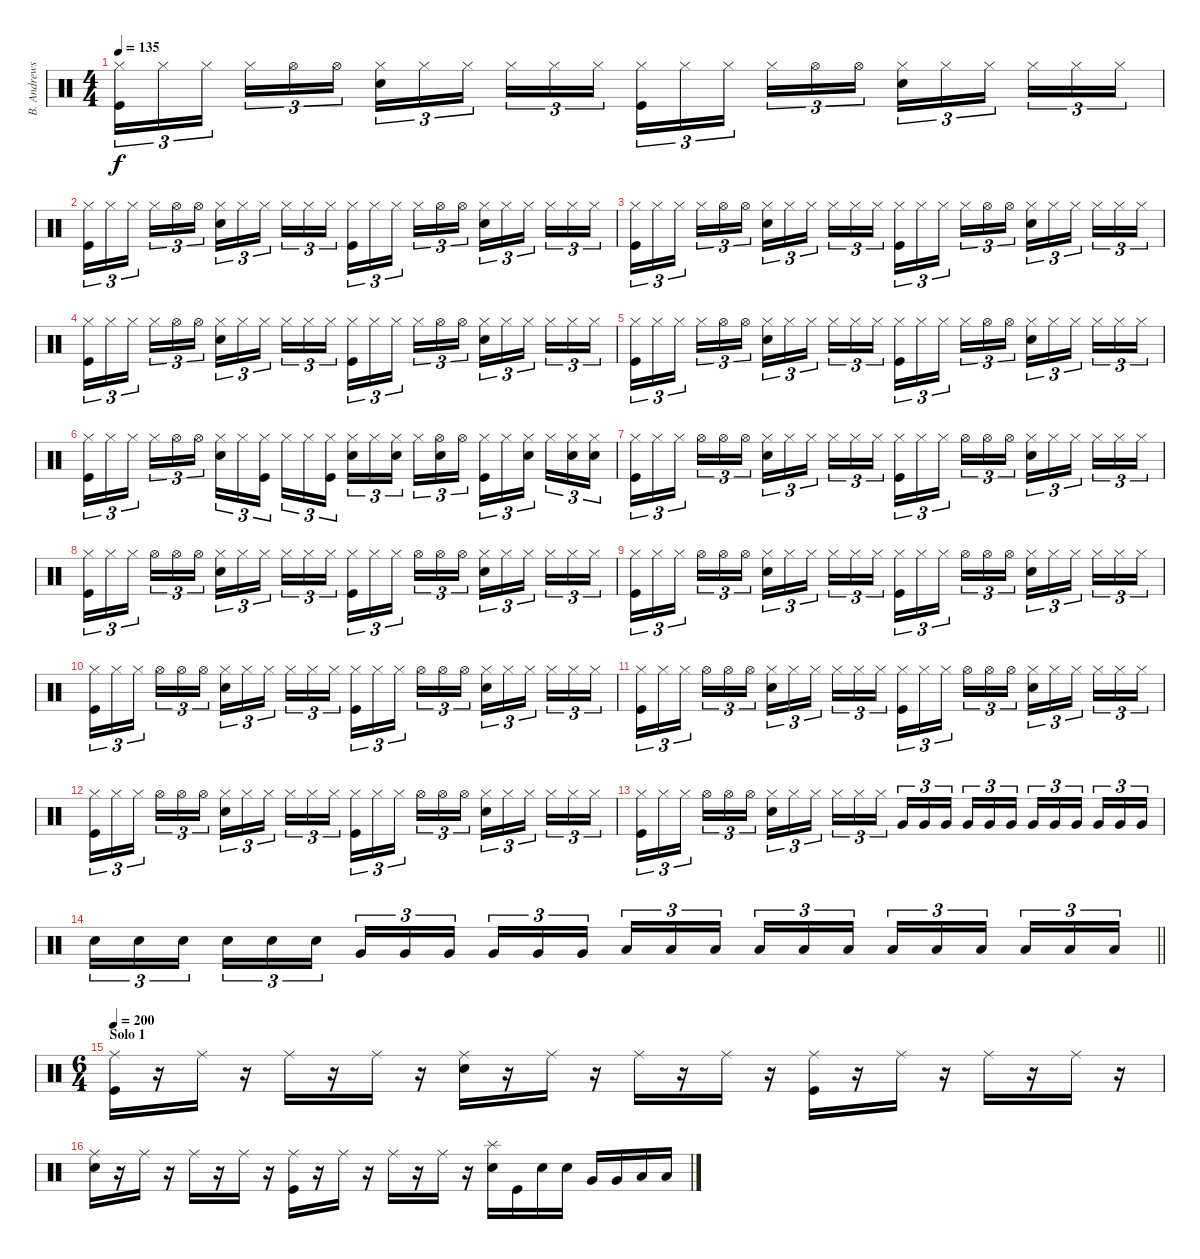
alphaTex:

\track ("B. Andrews" "B. Andrews") {instrument percussion}
\staff {score}
\articulation defaults
\ts (4 4)
\tempo 135
\clef neutral
\ks c
("Hi-Hat (closed)" "Kick (hit)").16{tu (3 2) dy f} "Hi-Hat (closed)".16{tu (3 2)} "Hi-Hat (closed)".16{tu (3 2) beam splitsecondary} "Hi-Hat (closed)".16{tu (3 2)} "Hi-Hat (open)".16{tu (3 2)} "Hi-Hat (open)".16{tu (3 2)} ("Hi-Hat (closed)" "Electric Snare (hit)").16{tu (3 2)} "Hi-Hat (closed)".16{tu (3 2)} "Hi-Hat (closed)".16{tu (3 2) beam splitsecondary} "Hi-Hat (closed)".16{tu (3 2)} "Hi-Hat (closed)".16{tu (3 2)} "Hi-Hat (closed)".16{tu (3 2)} ("Hi-Hat (closed)" "Kick (hit)").16{tu (3 2)} "Hi-Hat (closed)".16{tu (3 2)} "Hi-Hat (closed)".16{tu (3 2) beam splitsecondary} "Hi-Hat (closed)".16{tu (3 2)} "Hi-Hat (open)".16{tu (3 2)} "Hi-Hat (open)".16{tu (3 2)} ("Hi-Hat (closed)" "Electric Snare (hit)").16{tu (3 2)} "Hi-Hat (closed)".16{tu (3 2)} "Hi-Hat (closed)".16{tu (3 2) beam splitsecondary} "Hi-Hat (closed)".16{tu (3 2)} "Hi-Hat (closed)".16{tu (3 2)} "Hi-Hat (closed)".16{tu (3 2)} |
("Hi-Hat (closed)" "Kick (hit)").16{tu (3 2)} "Hi-Hat (closed)".16{tu (3 2)} "Hi-Hat (closed)".16{tu (3 2) beam splitsecondary} "Hi-Hat (closed)".16{tu (3 2)} "Hi-Hat (open)".16{tu (3 2)} "Hi-Hat (open)".16{tu (3 2)} ("Hi-Hat (closed)" "Electric Snare (hit)").16{tu (3 2)} "Hi-Hat (closed)".16{tu (3 2)} "Hi-Hat (closed)".16{tu (3 2) beam splitsecondary} "Hi-Hat (closed)".16{tu (3 2)} "Hi-Hat (closed)".16{tu (3 2)} "Hi-Hat (closed)".16{tu (3 2)} ("Hi-Hat (closed)" "Kick (hit)").16{tu (3 2)} "Hi-Hat (closed)".16{tu (3 2)} "Hi-Hat (closed)".16{tu (3 2) beam splitsecondary} "Hi-Hat (closed)".16{tu (3 2)} "Hi-Hat (open)".16{tu (3 2)} "Hi-Hat (open)".16{tu (3 2)} ("Hi-Hat (closed)" "Electric Snare (hit)").16{tu (3 2)} "Hi-Hat (closed)".16{tu (3 2)} "Hi-Hat (closed)".16{tu (3 2) beam splitsecondary} "Hi-Hat (closed)".16{tu (3 2)} "Hi-Hat (closed)".16{tu (3 2)} "Hi-Hat (closed)".16{tu (3 2)} |
("Hi-Hat (closed)" "Kick (hit)").16{tu (3 2)} "Hi-Hat (closed)".16{tu (3 2)} "Hi-Hat (closed)".16{tu (3 2) beam splitsecondary} "Hi-Hat (closed)".16{tu (3 2)} "Hi-Hat (open)".16{tu (3 2)} "Hi-Hat (open)".16{tu (3 2)} ("Hi-Hat (closed)" "Electric Snare (hit)").16{tu (3 2)} "Hi-Hat (closed)".16{tu (3 2)} "Hi-Hat (closed)".16{tu (3 2) beam splitsecondary} "Hi-Hat (closed)".16{tu (3 2)} "Hi-Hat (closed)".16{tu (3 2)} "Hi-Hat (closed)".16{tu (3 2)} ("Hi-Hat (closed)" "Kick (hit)").16{tu (3 2)} "Hi-Hat (closed)".16{tu (3 2)} "Hi-Hat (closed)".16{tu (3 2) beam splitsecondary} "Hi-Hat (closed)".16{tu (3 2)} "Hi-Hat (open)".16{tu (3 2)} "Hi-Hat (open)".16{tu (3 2)} ("Hi-Hat (closed)" "Electric Snare (hit)").16{tu (3 2)} "Hi-Hat (closed)".16{tu (3 2)} "Hi-Hat (closed)".16{tu (3 2) beam splitsecondary} "Hi-Hat (closed)".16{tu (3 2)} "Hi-Hat (closed)".16{tu (3 2)} "Hi-Hat (closed)".16{tu (3 2)} |
("Hi-Hat (closed)" "Kick (hit)").16{tu (3 2)} "Hi-Hat (closed)".16{tu (3 2)} "Hi-Hat (closed)".16{tu (3 2) beam splitsecondary} "Hi-Hat (closed)".16{tu (3 2)} "Hi-Hat (open)".16{tu (3 2)} "Hi-Hat (open)".16{tu (3 2)} ("Hi-Hat (closed)" "Electric Snare (hit)").16{tu (3 2)} "Hi-Hat (closed)".16{tu (3 2)} "Hi-Hat (closed)".16{tu (3 2) beam splitsecondary} "Hi-Hat (closed)".16{tu (3 2)} "Hi-Hat (closed)".16{tu (3 2)} "Hi-Hat (closed)".16{tu (3 2)} ("Hi-Hat (closed)" "Kick (hit)").16{tu (3 2)} "Hi-Hat (closed)".16{tu (3 2)} "Hi-Hat (closed)".16{tu (3 2) beam splitsecondary} "Hi-Hat (closed)".16{tu (3 2)} "Hi-Hat (open)".16{tu (3 2)} "Hi-Hat (open)".16{tu (3 2)} ("Hi-Hat (closed)" "Electric Snare (hit)").16{tu (3 2)} "Hi-Hat (closed)".16{tu (3 2)} "Hi-Hat (closed)".16{tu (3 2) beam splitsecondary} "Hi-Hat (closed)".16{tu (3 2)} "Hi-Hat (closed)".16{tu (3 2)} "Hi-Hat (closed)".16{tu (3 2)} |
("Hi-Hat (closed)" "Kick (hit)").16{tu (3 2)} "Hi-Hat (closed)".16{tu (3 2)} "Hi-Hat (closed)".16{tu (3 2) beam splitsecondary} "Hi-Hat (closed)".16{tu (3 2)} "Hi-Hat (open)".16{tu (3 2)} "Hi-Hat (open)".16{tu (3 2)} ("Hi-Hat (closed)" "Electric Snare (hit)").16{tu (3 2)} "Hi-Hat (closed)".16{tu (3 2)} "Hi-Hat (closed)".16{tu (3 2) beam splitsecondary} "Hi-Hat (closed)".16{tu (3 2)} "Hi-Hat (closed)".16{tu (3 2)} "Hi-Hat (closed)".16{tu (3 2)} ("Hi-Hat (closed)" "Kick (hit)").16{tu (3 2)} "Hi-Hat (closed)".16{tu (3 2)} "Hi-Hat (closed)".16{tu (3 2) beam splitsecondary} "Hi-Hat (closed)".16{tu (3 2)} "Hi-Hat (open)".16{tu (3 2)} "Hi-Hat (open)".16{tu (3 2)} ("Hi-Hat (closed)" "Electric Snare (hit)").16{tu (3 2)} "Hi-Hat (closed)".16{tu (3 2)} "Hi-Hat (closed)".16{tu (3 2) beam splitsecondary} "Hi-Hat (closed)".16{tu (3 2)} "Hi-Hat (closed)".16{tu (3 2)} "Hi-Hat (closed)".16{tu (3 2)} |
("Hi-Hat (closed)" "Kick (hit)").16{tu (3 2)} "Hi-Hat (closed)".16{tu (3 2)} "Hi-Hat (closed)".16{tu (3 2) beam splitsecondary} "Hi-Hat (closed)".16{tu (3 2)} "Hi-Hat (open)".16{tu (3 2)} "Hi-Hat (open)".16{tu (3 2)} ("Hi-Hat (closed)" "Electric Snare (hit)").16{tu (3 2)} "Hi-Hat (closed)".16{tu (3 2)} ("Hi-Hat (closed)" "Kick (hit)").16{tu (3 2) beam splitsecondary} "Hi-Hat (closed)".16{tu (3 2)} "Hi-Hat (closed)".16{tu (3 2)} ("Hi-Hat (closed)" "Kick (hit)").16{tu (3 2)} ("Hi-Hat (closed)" "Electric Snare (hit)").16{tu (3 2)} "Hi-Hat (closed)".16{tu (3 2)} ("Hi-Hat (closed)" "Electric Snare (hit)").16{tu (3 2) beam splitsecondary} "Hi-Hat (closed)".16{tu (3 2)} ("Hi-Hat (open)" "Electric Snare (hit)").16{tu (3 2)} "Hi-Hat (open)".16{tu (3 2)} ("Hi-Hat (closed)" "Kick (hit)").16{tu (3 2)} "Hi-Hat (closed)".16{tu (3 2)} ("Hi-Hat (closed)" "Electric Snare (hit)").16{tu (3 2) beam splitsecondary} "Hi-Hat (closed)".16{tu (3 2)} ("Hi-Hat (closed)" "Electric Snare (hit)").16{tu (3 2)} ("Hi-Hat (closed)" "Electric Snare (hit)").16{tu (3 2)} |
("Hi-Hat (closed)" "Kick (hit)").16{tu (3 2)} "Hi-Hat (closed)".16{tu (3 2)} "Hi-Hat (closed)".16{tu (3 2) beam splitsecondary} "Hi-Hat (open)".16{tu (3 2)} "Hi-Hat (open)".16{tu (3 2)} "Hi-Hat (open)".16{tu (3 2)} ("Hi-Hat (closed)" "Electric Snare (hit)").16{tu (3 2)} "Hi-Hat (closed)".16{tu (3 2)} "Hi-Hat (closed)".16{tu (3 2) beam splitsecondary} "Hi-Hat (closed)".16{tu (3 2)} "Hi-Hat (closed)".16{tu (3 2)} "Hi-Hat (closed)".16{tu (3 2)} ("Hi-Hat (closed)" "Kick (hit)").16{tu (3 2)} "Hi-Hat (closed)".16{tu (3 2)} "Hi-Hat (closed)".16{tu (3 2) beam splitsecondary} "Hi-Hat (open)".16{tu (3 2)} "Hi-Hat (open)".16{tu (3 2)} "Hi-Hat (open)".16{tu (3 2)} ("Hi-Hat (closed)" "Electric Snare (hit)").16{tu (3 2)} "Hi-Hat (closed)".16{tu (3 2)} "Hi-Hat (closed)".16{tu (3 2) beam splitsecondary} "Hi-Hat (closed)".16{tu (3 2)} "Hi-Hat (closed)".16{tu (3 2)} "Hi-Hat (closed)".16{tu (3 2)} |
("Hi-Hat (closed)" "Kick (hit)").16{tu (3 2)} "Hi-Hat (closed)".16{tu (3 2)} "Hi-Hat (closed)".16{tu (3 2) beam splitsecondary} "Hi-Hat (open)".16{tu (3 2)} "Hi-Hat (open)".16{tu (3 2)} "Hi-Hat (open)".16{tu (3 2)} ("Hi-Hat (closed)" "Electric Snare (hit)").16{tu (3 2)} "Hi-Hat (closed)".16{tu (3 2)} "Hi-Hat (closed)".16{tu (3 2) beam splitsecondary} "Hi-Hat (closed)".16{tu (3 2)} "Hi-Hat (closed)".16{tu (3 2)} "Hi-Hat (closed)".16{tu (3 2)} ("Hi-Hat (closed)" "Kick (hit)").16{tu (3 2)} "Hi-Hat (closed)".16{tu (3 2)} "Hi-Hat (closed)".16{tu (3 2) beam splitsecondary} "Hi-Hat (open)".16{tu (3 2)} "Hi-Hat (open)".16{tu (3 2)} "Hi-Hat (open)".16{tu (3 2)} ("Hi-Hat (closed)" "Electric Snare (hit)").16{tu (3 2)} "Hi-Hat (closed)".16{tu (3 2)} "Hi-Hat (closed)".16{tu (3 2) beam splitsecondary} "Hi-Hat (closed)".16{tu (3 2)} "Hi-Hat (closed)".16{tu (3 2)} "Hi-Hat (closed)".16{tu (3 2)} |
("Hi-Hat (closed)" "Kick (hit)").16{tu (3 2)} "Hi-Hat (closed)".16{tu (3 2)} "Hi-Hat (closed)".16{tu (3 2) beam splitsecondary} "Hi-Hat (open)".16{tu (3 2)} "Hi-Hat (open)".16{tu (3 2)} "Hi-Hat (open)".16{tu (3 2)} ("Hi-Hat (closed)" "Electric Snare (hit)").16{tu (3 2)} "Hi-Hat (closed)".16{tu (3 2)} "Hi-Hat (closed)".16{tu (3 2) beam splitsecondary} "Hi-Hat (closed)".16{tu (3 2)} "Hi-Hat (closed)".16{tu (3 2)} "Hi-Hat (closed)".16{tu (3 2)} ("Hi-Hat (closed)" "Kick (hit)").16{tu (3 2)} "Hi-Hat (closed)".16{tu (3 2)} "Hi-Hat (closed)".16{tu (3 2) beam splitsecondary} "Hi-Hat (open)".16{tu (3 2)} "Hi-Hat (open)".16{tu (3 2)} "Hi-Hat (open)".16{tu (3 2)} ("Hi-Hat (closed)" "Electric Snare (hit)").16{tu (3 2)} "Hi-Hat (closed)".16{tu (3 2)} "Hi-Hat (closed)".16{tu (3 2) beam splitsecondary} "Hi-Hat (closed)".16{tu (3 2)} "Hi-Hat (closed)".16{tu (3 2)} "Hi-Hat (closed)".16{tu (3 2)} |
("Hi-Hat (closed)" "Kick (hit)").16{tu (3 2)} "Hi-Hat (closed)".16{tu (3 2)} "Hi-Hat (closed)".16{tu (3 2) beam splitsecondary} "Hi-Hat (open)".16{tu (3 2)} "Hi-Hat (open)".16{tu (3 2)} "Hi-Hat (open)".16{tu (3 2)} ("Hi-Hat (closed)" "Electric Snare (hit)").16{tu (3 2)} "Hi-Hat (closed)".16{tu (3 2)} "Hi-Hat (closed)".16{tu (3 2) beam splitsecondary} "Hi-Hat (closed)".16{tu (3 2)} "Hi-Hat (closed)".16{tu (3 2)} "Hi-Hat (closed)".16{tu (3 2)} ("Hi-Hat (closed)" "Kick (hit)").16{tu (3 2)} "Hi-Hat (closed)".16{tu (3 2)} "Hi-Hat (closed)".16{tu (3 2) beam splitsecondary} "Hi-Hat (open)".16{tu (3 2)} "Hi-Hat (open)".16{tu (3 2)} "Hi-Hat (open)".16{tu (3 2)} ("Hi-Hat (closed)" "Electric Snare (hit)").16{tu (3 2)} "Hi-Hat (closed)".16{tu (3 2)} "Hi-Hat (closed)".16{tu (3 2) beam splitsecondary} "Hi-Hat (closed)".16{tu (3 2)} "Hi-Hat (closed)".16{tu (3 2)} "Hi-Hat (closed)".16{tu (3 2)} |
("Hi-Hat (closed)" "Kick (hit)").16{tu (3 2)} "Hi-Hat (closed)".16{tu (3 2)} "Hi-Hat (closed)".16{tu (3 2) beam splitsecondary} "Hi-Hat (open)".16{tu (3 2)} "Hi-Hat (open)".16{tu (3 2)} "Hi-Hat (open)".16{tu (3 2)} ("Hi-Hat (closed)" "Electric Snare (hit)").16{tu (3 2)} "Hi-Hat (closed)".16{tu (3 2)} "Hi-Hat (closed)".16{tu (3 2) beam splitsecondary} "Hi-Hat (closed)".16{tu (3 2)} "Hi-Hat (closed)".16{tu (3 2)} "Hi-Hat (closed)".16{tu (3 2)} ("Hi-Hat (closed)" "Kick (hit)").16{tu (3 2)} "Hi-Hat (closed)".16{tu (3 2)} "Hi-Hat (closed)".16{tu (3 2) beam splitsecondary} "Hi-Hat (open)".16{tu (3 2)} "Hi-Hat (open)".16{tu (3 2)} "Hi-Hat (open)".16{tu (3 2)} ("Hi-Hat (closed)" "Electric Snare (hit)").16{tu (3 2)} "Hi-Hat (closed)".16{tu (3 2)} "Hi-Hat (closed)".16{tu (3 2) beam splitsecondary} "Hi-Hat (closed)".16{tu (3 2)} "Hi-Hat (closed)".16{tu (3 2)} "Hi-Hat (closed)".16{tu (3 2)} |
("Hi-Hat (closed)" "Kick (hit)").16{tu (3 2)} "Hi-Hat (closed)".16{tu (3 2)} "Hi-Hat (closed)".16{tu (3 2) beam splitsecondary} "Hi-Hat (open)".16{tu (3 2)} "Hi-Hat (open)".16{tu (3 2)} "Hi-Hat (open)".16{tu (3 2)} ("Hi-Hat (closed)" "Electric Snare (hit)").16{tu (3 2)} "Hi-Hat (closed)".16{tu (3 2)} "Hi-Hat (closed)".16{tu (3 2) beam splitsecondary} "Hi-Hat (closed)".16{tu (3 2)} "Hi-Hat (closed)".16{tu (3 2)} "Hi-Hat (closed)".16{tu (3 2)} ("Hi-Hat (closed)" "Kick (hit)").16{tu (3 2)} "Hi-Hat (closed)".16{tu (3 2)} "Hi-Hat (closed)".16{tu (3 2) beam splitsecondary} "Hi-Hat (open)".16{tu (3 2)} "Hi-Hat (open)".16{tu (3 2)} "Hi-Hat (open)".16{tu (3 2)} ("Hi-Hat (closed)" "Electric Snare (hit)").16{tu (3 2)} "Hi-Hat (closed)".16{tu (3 2)} "Hi-Hat (closed)".16{tu (3 2) beam splitsecondary} "Hi-Hat (closed)".16{tu (3 2)} "Hi-Hat (closed)".16{tu (3 2)} "Hi-Hat (closed)".16{tu (3 2)} |
("Hi-Hat (closed)" "Kick (hit)").16{tu (3 2)} "Hi-Hat (closed)".16{tu (3 2)} "Hi-Hat (closed)".16{tu (3 2) beam splitsecondary} "Hi-Hat (open)".16{tu (3 2)} "Hi-Hat (open)".16{tu (3 2)} "Hi-Hat (open)".16{tu (3 2)} ("Hi-Hat (closed)" "Electric Snare (hit)").16{tu (3 2)} "Hi-Hat (closed)".16{tu (3 2)} "Hi-Hat (closed)".16{tu (3 2) beam splitsecondary} "Hi-Hat (closed)".16{tu (3 2)} "Hi-Hat (closed)".16{tu (3 2)} "Hi-Hat (closed)".16{tu (3 2)} "Very Low Tom (hit)".16{tu (3 2)} "Very Low Tom (hit)".16{tu (3 2)} "Very Low Tom (hit)".16{tu (3 2) beam splitsecondary} "Very Low Tom (hit)".16{tu (3 2)} "Very Low Tom (hit)".16{tu (3 2)} "Very Low Tom (hit)".16{tu (3 2)} "Very Low Tom (hit)".16{tu (3 2)} "Very Low Tom (hit)".16{tu (3 2)} "Very Low Tom (hit)".16{tu (3 2) beam splitsecondary} "Very Low Tom (hit)".16{tu (3 2)} "Very Low Tom (hit)".16{tu (3 2)} "Very Low Tom (hit)".16{tu (3 2)} |
\barLineRight lightlight "Electric Snare (hit)".16{tu (3 2)} "Electric Snare (hit)".16{tu (3 2)} "Electric Snare (hit)".16{tu (3 2) beam splitsecondary} "Electric Snare (hit)".16{tu (3 2)} "Electric Snare (hit)".16{tu (3 2)} "Electric Snare (hit)".16{tu (3 2)} "Very Low Tom (hit)".16{tu (3 2)} "Very Low Tom (hit)".16{tu (3 2)} "Very Low Tom (hit)".16{tu (3 2) beam splitsecondary} "Very Low Tom (hit)".16{tu (3 2)} "Very Low Tom (hit)".16{tu (3 2)} "Very Low Tom (hit)".16{tu (3 2)} "Low Floor Tom (hit)".16{tu (3 2)} "Low Floor Tom (hit)".16{tu (3 2)} "Low Floor Tom (hit)".16{tu (3 2) beam splitsecondary} "Low Floor Tom (hit)".16{tu (3 2)} "Low Floor Tom (hit)".16{tu (3 2)} "Low Floor Tom (hit)".16{tu (3 2)} "Low Floor Tom (hit)".16{tu (3 2)} "Low Floor Tom (hit)".16{tu (3 2)} "Low Floor Tom (hit)".16{tu (3 2) beam splitsecondary} "Low Floor Tom (hit)".16{tu (3 2)} "Low Floor Tom (hit)".16{tu (3 2)} "Low Floor Tom (hit)".16{tu (3 2)}
|
\ts (6 4)
\section ("" "Solo 1")
\tempo 200
("Ride (middle)" "Kick (hit)").16 r.16 "Ride (middle)".16 r.16 "Ride (middle)".16 r.16 "Ride (middle)".16 r.16 ("Ride (middle)" "Electric Snare (hit)").16 r.16 "Ride (middle)".16 r.16 "Ride (middle)".16 r.16 "Ride (middle)".16 r.16 ("Ride (middle)" "Kick (hit)").16 r.16 "Ride (middle)".16 r.16 "Ride (middle)".16 r.16 "Ride (middle)".16 r.16 |
("Ride (middle)" "Electric Snare (hit)").16 r.16 "Ride (middle)".16 r.16 "Ride (middle)".16 r.16 "Ride (middle)".16 r.16 ("Ride (middle)" "Kick (hit)").16 r.16 "Ride (middle)".16 r.16 "Ride (middle)".16 r.16 "Ride (middle)".16 r.16 ("Splash (hit)" "Electric Snare (hit)").16 "Kick (hit)".16 "Electric Snare (hit)".16 "Electric Snare (hit)".16 "Very Low Tom (hit)".16 "Very Low Tom (hit)".16 "Low Floor Tom (hit)".16 "Low Floor Tom (hit)".16
